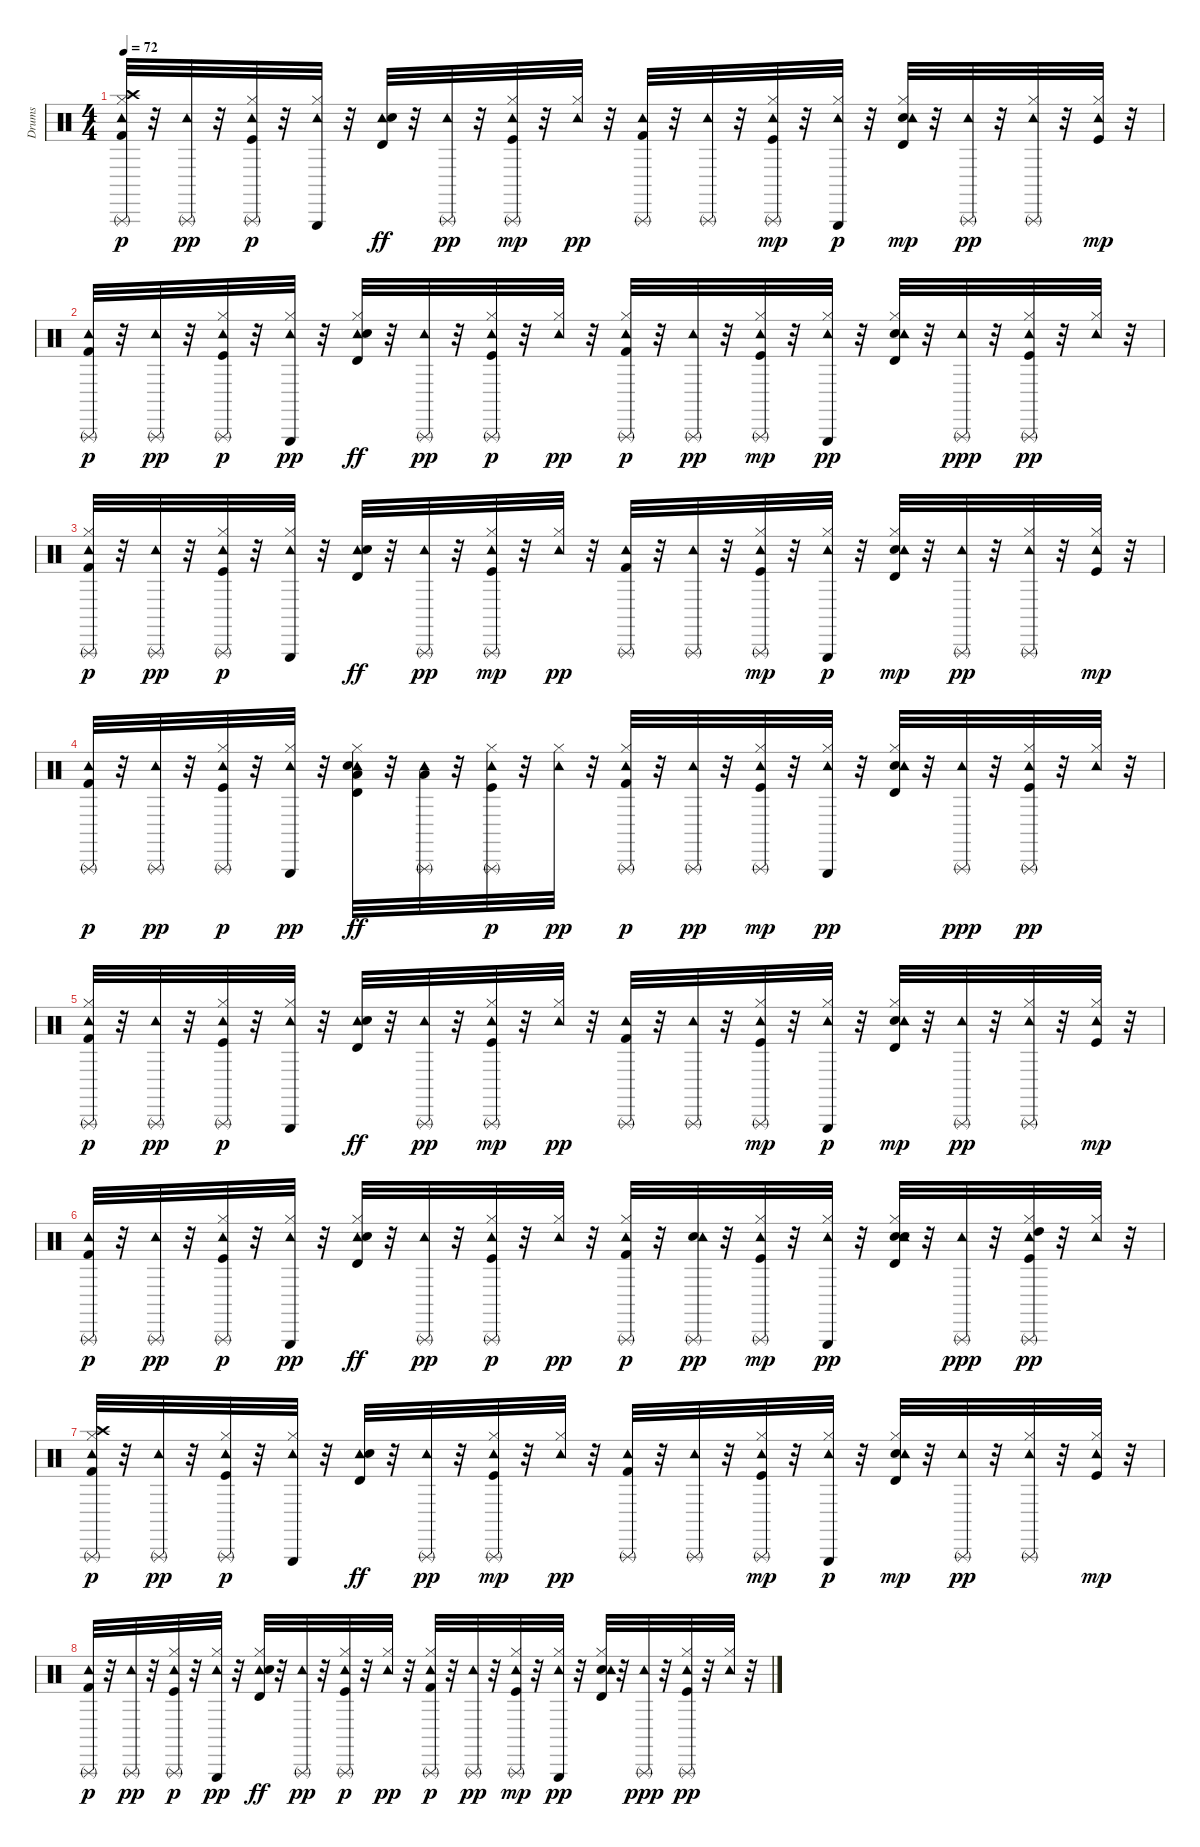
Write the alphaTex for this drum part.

\track ("Drums" "Drums") {instrument percussion}
\staff {score}
\articulation defaults
\ts (4 4)
\tempo 72
\clef neutral
\ks c
("Hi-Hat (closed)" "Crash high (hit)" "Tambourine (hit)" "Triangle (rnute)" "Kick (hit) 2").32{dy p} r.32 ("Triangle (rnute)" "Tambourine (hit)").32{dy pp} r.32 ("Kick (hit)" "Hi-Hat (closed)" "Tambourine (hit)" "Triangle (rnute)").32{dy p} r.32 ("Hi-Hat (closed)" "Tambourine (hit)" "Triangle (hit)").32 r.32 ("Tambourine (hit)" "Electric Snare (hit)" "Timbale high (hit)").32{dy ff} r.32 ("Triangle (rnute)" "Tambourine (hit)").32{dy pp} r.32 ("Kick (hit)" "Hi-Hat (closed)" "Tambourine (hit)" "Triangle (rnute)").32{dy mp} r.32 ("Hi-Hat (closed)" "Tambourine (hit)").32{dy pp} r.32 ("Tambourine (hit)" "Kick (hit) 2" "Triangle (rnute)").32 r.32 ("Triangle (rnute)" "Tambourine (hit)").32 r.32 ("Hi-Hat (closed)" "Triangle (rnute)" "Tambourine (hit)" "Kick (hit)").32{dy mp} r.32 ("Hi-Hat (closed)" "Tambourine (hit)" "Triangle (hit)").32{dy p} r.32 ("Timbale high (hit)" "Electric Snare (hit)" "Tambourine (hit)" "Hi-Hat (closed)").32{dy mp} r.32 ("Tambourine (hit)" "Triangle (rnute)").32{dy pp} r.32 ("Tambourine (hit)" "Hi-Hat (closed)" "Triangle (rnute)").32 r.32 ("Kick (hit)" "Tambourine (hit)" "Hi-Hat (closed)").32{dy mp} r.32 |
("Kick (hit) 2" "Tambourine (hit)" "Triangle (rnute)").32{dy p} r.32 ("Triangle (rnute)" "Tambourine (hit)").32{dy pp} r.32 ("Kick (hit)" "Hi-Hat (closed)" "Triangle (rnute)" "Tambourine (hit)").32{dy p} r.32 ("Hi-Hat (closed)" "Triangle (hit)" "Tambourine (hit)").32{dy pp} r.32 ("Hi-Hat (closed)" "Tambourine (hit)" "Electric Snare (hit)" "Timbale high (hit)").32{dy ff} r.32 ("Tambourine (hit)" "Triangle (rnute)").32{dy pp} r.32 ("Kick (hit)" "Hi-Hat (closed)" "Tambourine (hit)" "Triangle (rnute)").32{dy p} r.32 ("Hi-Hat (closed)" "Tambourine (hit)").32{dy pp} r.32 ("Hi-Hat (closed)" "Triangle (rnute)" "Tambourine (hit)" "Kick (hit) 2").32{dy p} r.32 ("Triangle (rnute)" "Tambourine (hit)").32{dy pp} r.32 ("Hi-Hat (closed)" "Triangle (rnute)" "Tambourine (hit)" "Kick (hit)").32{dy mp} r.32 ("Hi-Hat (closed)" "Triangle (hit)" "Tambourine (hit)").32{dy pp} r.32 ("Electric Snare (hit)" "Timbale high (hit)" "Hi-Hat (closed)" "Tambourine (hit)").32 r.32 ("Triangle (rnute)" "Tambourine (hit)").32{dy ppp} r.32 ("Kick (hit)" "Hi-Hat (closed)" "Triangle (rnute)" "Tambourine (hit)").32{dy pp} r.32 ("Hi-Hat (closed)" "Tambourine (hit)").32 r.32 |
("Hi-Hat (closed)" "Tambourine (hit)" "Triangle (rnute)" "Kick (hit) 2").32{dy p} r.32 ("Triangle (rnute)" "Tambourine (hit)").32{dy pp} r.32 ("Kick (hit)" "Hi-Hat (closed)" "Tambourine (hit)" "Triangle (rnute)").32{dy p} r.32 ("Hi-Hat (closed)" "Tambourine (hit)" "Triangle (hit)").32 r.32 ("Tambourine (hit)" "Electric Snare (hit)" "Timbale high (hit)").32{dy ff} r.32 ("Triangle (rnute)" "Tambourine (hit)").32{dy pp} r.32 ("Kick (hit)" "Hi-Hat (closed)" "Tambourine (hit)" "Triangle (rnute)").32{dy mp} r.32 ("Hi-Hat (closed)" "Tambourine (hit)").32{dy pp} r.32 ("Tambourine (hit)" "Kick (hit) 2" "Triangle (rnute)").32 r.32 ("Triangle (rnute)" "Tambourine (hit)").32 r.32 ("Hi-Hat (closed)" "Triangle (rnute)" "Tambourine (hit)" "Kick (hit)").32{dy mp} r.32 ("Hi-Hat (closed)" "Tambourine (hit)" "Triangle (hit)").32{dy p} r.32 ("Timbale high (hit)" "Electric Snare (hit)" "Tambourine (hit)" "Hi-Hat (closed)").32{dy mp} r.32 ("Tambourine (hit)" "Triangle (rnute)").32{dy pp} r.32 ("Tambourine (hit)" "Hi-Hat (closed)" "Triangle (rnute)").32 r.32 ("Kick (hit)" "Tambourine (hit)" "Hi-Hat (closed)").32{dy mp} r.32 |
("Kick (hit) 2" "Tambourine (hit)" "Triangle (rnute)").32{dy p} r.32 ("Triangle (rnute)" "Tambourine (hit)").32{dy pp} r.32 ("Kick (hit)" "Hi-Hat (closed)" "Triangle (rnute)" "Tambourine (hit)").32{dy p} r.32 ("Hi-Hat (closed)" "Triangle (hit)" "Tambourine (hit)").32{dy pp} r.32 ("Low Tom (hit)" "Hi-Hat (closed)" "Tambourine (hit)" "Electric Snare (hit)" "Timbale high (hit)").32{dy ff} r.32 ("Tambourine (hit)" "Triangle (rnute)" "Low Tom (hit)").32 r.32 ("Kick (hit)" "Hi-Hat (closed)" "Tambourine (hit)" "Triangle (rnute)").32{dy p} r.32 ("Hi-Hat (closed)" "Tambourine (hit)").32{dy pp} r.32 ("Hi-Hat (closed)" "Triangle (rnute)" "Tambourine (hit)" "Kick (hit) 2").32{dy p} r.32 ("Triangle (rnute)" "Tambourine (hit)").32{dy pp} r.32 ("Hi-Hat (closed)" "Triangle (rnute)" "Tambourine (hit)" "Kick (hit)").32{dy mp} r.32 ("Hi-Hat (closed)" "Triangle (hit)" "Tambourine (hit)").32{dy pp} r.32 ("Electric Snare (hit)" "Timbale high (hit)" "Hi-Hat (closed)" "Tambourine (hit)").32 r.32 ("Triangle (rnute)" "Tambourine (hit)").32{dy ppp} r.32 ("Kick (hit)" "Hi-Hat (closed)" "Triangle (rnute)" "Tambourine (hit)").32{dy pp} r.32 ("Hi-Hat (closed)" "Tambourine (hit)").32 r.32 |
("Hi-Hat (closed)" "Tambourine (hit)" "Triangle (rnute)" "Kick (hit) 2").32{dy p} r.32 ("Triangle (rnute)" "Tambourine (hit)").32{dy pp} r.32 ("Kick (hit)" "Hi-Hat (closed)" "Tambourine (hit)" "Triangle (rnute)").32{dy p} r.32 ("Hi-Hat (closed)" "Tambourine (hit)" "Triangle (hit)").32 r.32 ("Tambourine (hit)" "Electric Snare (hit)" "Timbale high (hit)").32{dy ff} r.32 ("Triangle (rnute)" "Tambourine (hit)").32{dy pp} r.32 ("Kick (hit)" "Hi-Hat (closed)" "Tambourine (hit)" "Triangle (rnute)").32{dy mp} r.32 ("Hi-Hat (closed)" "Tambourine (hit)").32{dy pp} r.32 ("Tambourine (hit)" "Kick (hit) 2" "Triangle (rnute)").32 r.32 ("Triangle (rnute)" "Tambourine (hit)").32 r.32 ("Hi-Hat (closed)" "Triangle (rnute)" "Tambourine (hit)" "Kick (hit)").32{dy mp} r.32 ("Hi-Hat (closed)" "Tambourine (hit)" "Triangle (hit)").32{dy p} r.32 ("Timbale high (hit)" "Electric Snare (hit)" "Tambourine (hit)" "Hi-Hat (closed)").32{dy mp} r.32 ("Tambourine (hit)" "Triangle (rnute)").32{dy pp} r.32 ("Tambourine (hit)" "Hi-Hat (closed)" "Triangle (rnute)").32 r.32 ("Kick (hit)" "Tambourine (hit)" "Hi-Hat (closed)").32{dy mp} r.32 |
("Kick (hit) 2" "Tambourine (hit)" "Triangle (rnute)").32{dy p} r.32 ("Triangle (rnute)" "Tambourine (hit)").32{dy pp} r.32 ("Kick (hit)" "Hi-Hat (closed)" "Triangle (rnute)" "Tambourine (hit)").32{dy p} r.32 ("Hi-Hat (closed)" "Triangle (hit)" "Tambourine (hit)").32{dy pp} r.32 ("Hi-Hat (closed)" "Tambourine (hit)" "Electric Snare (hit)" "Timbale high (hit)").32{dy ff} r.32 ("Tambourine (hit)" "Triangle (rnute)").32{dy pp} r.32 ("Kick (hit)" "Hi-Hat (closed)" "Tambourine (hit)" "Triangle (rnute)").32{dy p} r.32 ("Hi-Hat (closed)" "Tambourine (hit)").32{dy pp} r.32 ("Hi-Hat (closed)" "Triangle (rnute)" "Tambourine (hit)" "Kick (hit) 2").32{dy p} r.32 ("Snare (hit) 2" "Triangle (rnute)" "Tambourine (hit)").32{dy pp} r.32 ("Hi-Hat (closed)" "Triangle (rnute)" "Tambourine (hit)" "Kick (hit)").32{dy mp} r.32 ("Hi-Hat (closed)" "Triangle (hit)" "Tambourine (hit)").32{dy pp} r.32 ("Electric Snare (hit)" "Timbale high (hit)" "Hi-Hat (closed)" "Tambourine (hit)" "Snare (hit) 2").32 r.32 ("Triangle (rnute)" "Tambourine (hit)").32{dy ppp} r.32 ("Kick (hit)" "Hi-Hat (closed)" "High Tom (hit)" "Triangle (rnute)" "Tambourine (hit)").32{dy pp} r.32 ("Hi-Hat (closed)" "Tambourine (hit)").32 r.32 |
("Hi-Hat (closed)" "Crash high (hit)" "Tambourine (hit)" "Triangle (rnute)" "Kick (hit) 2").32{dy p} r.32 ("Triangle (rnute)" "Tambourine (hit)").32{dy pp} r.32 ("Kick (hit)" "Hi-Hat (closed)" "Tambourine (hit)" "Triangle (rnute)").32{dy p} r.32 ("Hi-Hat (closed)" "Tambourine (hit)" "Triangle (hit)").32 r.32 ("Tambourine (hit)" "Electric Snare (hit)" "Timbale high (hit)").32{dy ff} r.32 ("Triangle (rnute)" "Tambourine (hit)").32{dy pp} r.32 ("Kick (hit)" "Hi-Hat (closed)" "Tambourine (hit)" "Triangle (rnute)").32{dy mp} r.32 ("Hi-Hat (closed)" "Tambourine (hit)").32{dy pp} r.32 ("Tambourine (hit)" "Kick (hit) 2" "Triangle (rnute)").32 r.32 ("Triangle (rnute)" "Tambourine (hit)").32 r.32 ("Hi-Hat (closed)" "Triangle (rnute)" "Tambourine (hit)" "Kick (hit)").32{dy mp} r.32 ("Hi-Hat (closed)" "Tambourine (hit)" "Triangle (hit)").32{dy p} r.32 ("Timbale high (hit)" "Electric Snare (hit)" "Tambourine (hit)" "Hi-Hat (closed)").32{dy mp} r.32 ("Tambourine (hit)" "Triangle (rnute)").32{dy pp} r.32 ("Tambourine (hit)" "Hi-Hat (closed)" "Triangle (rnute)").32 r.32 ("Kick (hit)" "Tambourine (hit)" "Hi-Hat (closed)").32{dy mp} r.32 |
("Kick (hit) 2" "Tambourine (hit)" "Triangle (rnute)").32{dy p} r.32 ("Triangle (rnute)" "Tambourine (hit)").32{dy pp} r.32 ("Kick (hit)" "Hi-Hat (closed)" "Triangle (rnute)" "Tambourine (hit)").32{dy p} r.32 ("Hi-Hat (closed)" "Triangle (hit)" "Tambourine (hit)").32{dy pp} r.32 ("Hi-Hat (closed)" "Tambourine (hit)" "Electric Snare (hit)" "Timbale high (hit)").32{dy ff} r.32 ("Tambourine (hit)" "Triangle (rnute)").32{dy pp} r.32 ("Kick (hit)" "Hi-Hat (closed)" "Tambourine (hit)" "Triangle (rnute)").32{dy p} r.32 ("Hi-Hat (closed)" "Tambourine (hit)").32{dy pp} r.32 ("Hi-Hat (closed)" "Triangle (rnute)" "Tambourine (hit)" "Kick (hit) 2").32{dy p} r.32 ("Triangle (rnute)" "Tambourine (hit)").32{dy pp} r.32 ("Hi-Hat (closed)" "Triangle (rnute)" "Tambourine (hit)" "Kick (hit)").32{dy mp} r.32 ("Hi-Hat (closed)" "Triangle (hit)" "Tambourine (hit)").32{dy pp} r.32 ("Electric Snare (hit)" "Timbale high (hit)" "Hi-Hat (closed)" "Tambourine (hit)").32 r.32 ("Triangle (rnute)" "Tambourine (hit)").32{dy ppp} r.32 ("Kick (hit)" "Hi-Hat (closed)" "Triangle (rnute)" "Tambourine (hit)").32{dy pp} r.32 ("Hi-Hat (closed)" "Tambourine (hit)").32 r.32
